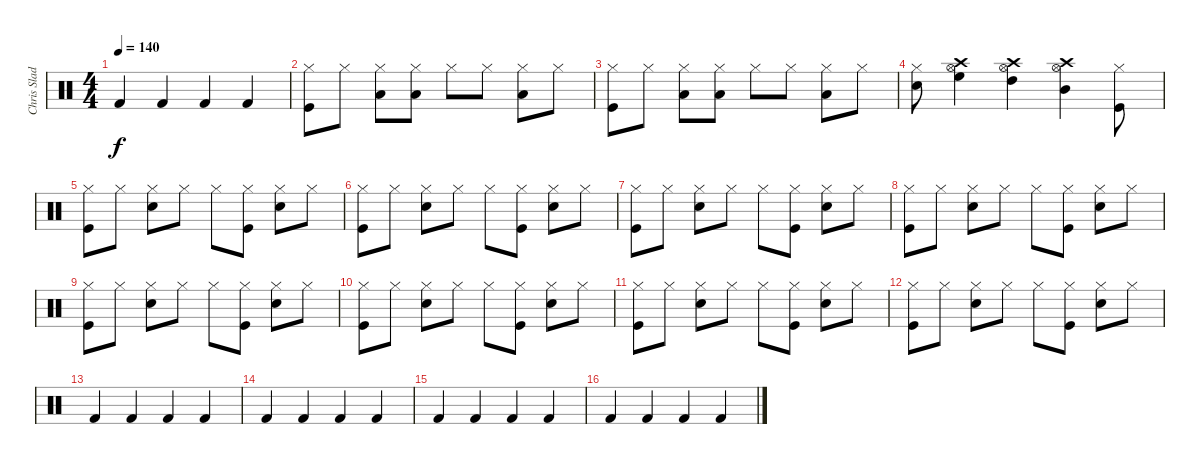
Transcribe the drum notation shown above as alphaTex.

\track ("Chris Slade" "Chris Slad") {instrument percussion}
\staff {score}
\articulation defaults
\ts (4 4)
\tempo 140
\clef neutral
\ks c "Kick (hit) 2".4{dy f} "Kick (hit) 2".4 "Kick (hit) 2".4 "Kick (hit) 2".4
|
("Hi-Hat (closed)" "Kick (hit)").8 "Hi-Hat (closed)".8 ("Hi-Hat (closed)" "Low Tom (hit)").8 ("Hi-Hat (closed)" "Low Tom (hit)").8 "Hi-Hat (closed)".8 "Hi-Hat (closed)".8 ("Hi-Hat (closed)" "Low Tom (hit)").8 "Hi-Hat (closed)".8 |
("Hi-Hat (closed)" "Kick (hit)").8 "Hi-Hat (closed)".8 ("Hi-Hat (closed)" "Low Tom (hit)").8 ("Hi-Hat (closed)" "Low Tom (hit)").8 "Hi-Hat (closed)".8 "Hi-Hat (closed)".8 ("Hi-Hat (closed)" "Low Tom (hit)").8 "Hi-Hat (closed)".8 |
("Hi-Hat (closed)" "Snare (hit) 2").8 ("Hi-Hat (open)" "Crash high (hit)" "High Floor Tom (hit)").4 ("Hi-Hat (open)" "Crash high (hit)" "High Tom (hit)").4 ("Hi-Hat (open)" "Crash high (hit)" "Mid Tom (hit)").4 ("Hi-Hat (closed)" "Kick (hit)").8 |
("Hi-Hat (closed)" "Kick (hit)").8 "Hi-Hat (closed)".8 ("Hi-Hat (closed)" "Snare (hit) 2").8 "Hi-Hat (closed)".8 "Hi-Hat (closed)".8 ("Hi-Hat (closed)" "Kick (hit)").8 ("Hi-Hat (closed)" "Snare (hit) 2").8 "Hi-Hat (closed)".8 |
("Hi-Hat (closed)" "Kick (hit)").8 "Hi-Hat (closed)".8 ("Hi-Hat (closed)" "Snare (hit) 2").8 "Hi-Hat (closed)".8 "Hi-Hat (closed)".8 ("Hi-Hat (closed)" "Kick (hit)").8 ("Hi-Hat (closed)" "Snare (hit) 2").8 "Hi-Hat (closed)".8 |
("Hi-Hat (closed)" "Kick (hit)").8 "Hi-Hat (closed)".8 ("Hi-Hat (closed)" "Snare (hit) 2").8 "Hi-Hat (closed)".8 "Hi-Hat (closed)".8 ("Hi-Hat (closed)" "Kick (hit)").8 ("Hi-Hat (closed)" "Snare (hit) 2").8 "Hi-Hat (closed)".8 |
("Hi-Hat (closed)" "Kick (hit)").8 "Hi-Hat (closed)".8 ("Hi-Hat (closed)" "Snare (hit) 2").8 "Hi-Hat (closed)".8 "Hi-Hat (closed)".8 ("Hi-Hat (closed)" "Kick (hit)").8 ("Hi-Hat (closed)" "Snare (hit) 2").8 "Hi-Hat (closed)".8 |
("Hi-Hat (closed)" "Kick (hit)").8 "Hi-Hat (closed)".8 ("Hi-Hat (closed)" "Snare (hit) 2").8 "Hi-Hat (closed)".8 "Hi-Hat (closed)".8 ("Hi-Hat (closed)" "Kick (hit)").8 ("Hi-Hat (closed)" "Snare (hit) 2").8 "Hi-Hat (closed)".8 |
("Hi-Hat (closed)" "Kick (hit)").8 "Hi-Hat (closed)".8 ("Hi-Hat (closed)" "Snare (hit) 2").8 "Hi-Hat (closed)".8 "Hi-Hat (closed)".8 ("Hi-Hat (closed)" "Kick (hit)").8 ("Hi-Hat (closed)" "Snare (hit) 2").8 "Hi-Hat (closed)".8 |
("Hi-Hat (closed)" "Kick (hit)").8 "Hi-Hat (closed)".8 ("Hi-Hat (closed)" "Snare (hit) 2").8 "Hi-Hat (closed)".8 "Hi-Hat (closed)".8 ("Hi-Hat (closed)" "Kick (hit)").8 ("Hi-Hat (closed)" "Snare (hit) 2").8 "Hi-Hat (closed)".8 |
("Hi-Hat (closed)" "Kick (hit)").8 "Hi-Hat (closed)".8 ("Hi-Hat (closed)" "Snare (hit) 2").8 "Hi-Hat (closed)".8 "Hi-Hat (closed)".8 ("Hi-Hat (closed)" "Kick (hit)").8 ("Hi-Hat (closed)" "Snare (hit) 2").8 "Hi-Hat (closed)".8 |
"Kick (hit) 2".4 "Kick (hit) 2".4 "Kick (hit) 2".4 "Kick (hit) 2".4 |
"Kick (hit) 2".4 "Kick (hit) 2".4 "Kick (hit) 2".4 "Kick (hit) 2".4 |
"Kick (hit) 2".4 "Kick (hit) 2".4 "Kick (hit) 2".4 "Kick (hit) 2".4 |
"Kick (hit) 2".4 "Kick (hit) 2".4 "Kick (hit) 2".4 "Kick (hit) 2".4
